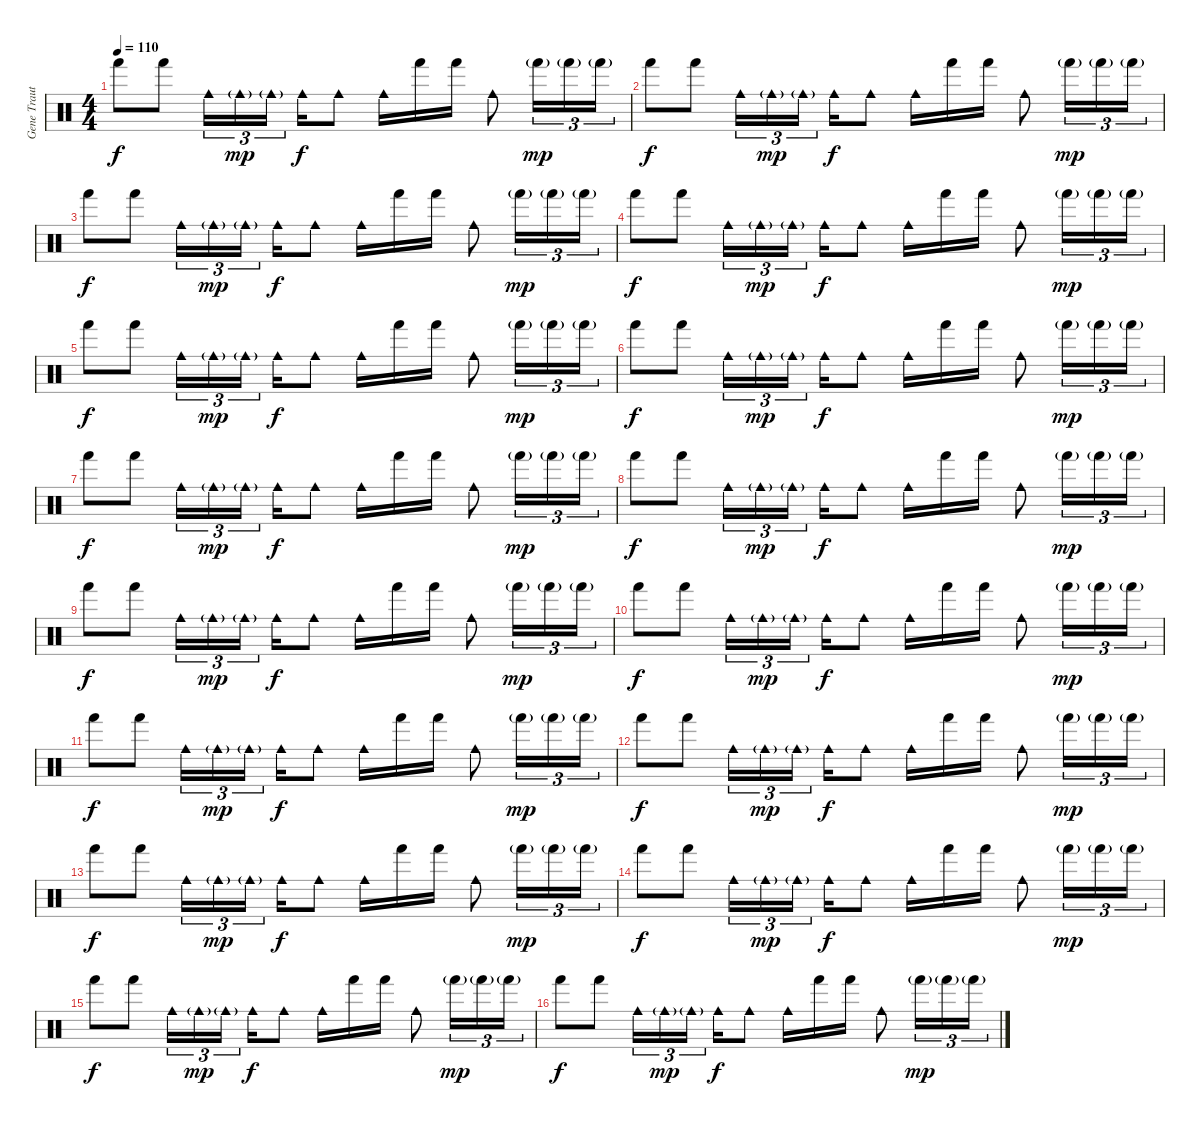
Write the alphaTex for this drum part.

\track ("Gene Trautmann (Drums)" "Gene Traut") {instrument percussion}
\staff {score}
\articulation defaults
\ts (4 4)
\tempo 110
\clef neutral
\ks c "Hand (hit)".8{dy f} "Hand (hit)".8 "Cowbell medium (hit)".16{tu (3 2)} "Cowbell medium (hit)"{g}.16{tu (3 2) dy mp} "Cowbell medium (hit)"{g}.16{tu (3 2)} "Cowbell medium (hit)".16{dy f} "Cowbell medium (hit)".8 "Cowbell medium (hit)".16 "Hand (hit)".16 "Hand (hit)".16 "Cowbell medium (hit)".8 "Hand (hit)"{g}.16{tu (3 2) dy mp} "Hand (hit)"{g}.16{tu (3 2)} "Hand (hit)"{g}.16{tu (3 2)}
|
"Hand (hit)".8{dy f} "Hand (hit)".8 "Cowbell medium (hit)".16{tu (3 2)} "Cowbell medium (hit)"{g}.16{tu (3 2) dy mp} "Cowbell medium (hit)"{g}.16{tu (3 2)} "Cowbell medium (hit)".16{dy f} "Cowbell medium (hit)".8 "Cowbell medium (hit)".16 "Hand (hit)".16 "Hand (hit)".16 "Cowbell medium (hit)".8 "Hand (hit)"{g}.16{tu (3 2) dy mp} "Hand (hit)"{g}.16{tu (3 2)} "Hand (hit)"{g}.16{tu (3 2)} |
"Hand (hit)".8{dy f} "Hand (hit)".8 "Cowbell medium (hit)".16{tu (3 2)} "Cowbell medium (hit)"{g}.16{tu (3 2) dy mp} "Cowbell medium (hit)"{g}.16{tu (3 2)} "Cowbell medium (hit)".16{dy f} "Cowbell medium (hit)".8 "Cowbell medium (hit)".16 "Hand (hit)".16 "Hand (hit)".16 "Cowbell medium (hit)".8 "Hand (hit)"{g}.16{tu (3 2) dy mp} "Hand (hit)"{g}.16{tu (3 2)} "Hand (hit)"{g}.16{tu (3 2)} |
"Hand (hit)".8{dy f} "Hand (hit)".8 "Cowbell medium (hit)".16{tu (3 2)} "Cowbell medium (hit)"{g}.16{tu (3 2) dy mp} "Cowbell medium (hit)"{g}.16{tu (3 2)} "Cowbell medium (hit)".16{dy f} "Cowbell medium (hit)".8 "Cowbell medium (hit)".16 "Hand (hit)".16 "Hand (hit)".16 "Cowbell medium (hit)".8 "Hand (hit)"{g}.16{tu (3 2) dy mp} "Hand (hit)"{g}.16{tu (3 2)} "Hand (hit)"{g}.16{tu (3 2)} |
"Hand (hit)".8{dy f} "Hand (hit)".8 "Cowbell medium (hit)".16{tu (3 2)} "Cowbell medium (hit)"{g}.16{tu (3 2) dy mp} "Cowbell medium (hit)"{g}.16{tu (3 2)} "Cowbell medium (hit)".16{dy f} "Cowbell medium (hit)".8 "Cowbell medium (hit)".16 "Hand (hit)".16 "Hand (hit)".16 "Cowbell medium (hit)".8 "Hand (hit)"{g}.16{tu (3 2) dy mp} "Hand (hit)"{g}.16{tu (3 2)} "Hand (hit)"{g}.16{tu (3 2)} |
"Hand (hit)".8{dy f} "Hand (hit)".8 "Cowbell medium (hit)".16{tu (3 2)} "Cowbell medium (hit)"{g}.16{tu (3 2) dy mp} "Cowbell medium (hit)"{g}.16{tu (3 2)} "Cowbell medium (hit)".16{dy f} "Cowbell medium (hit)".8 "Cowbell medium (hit)".16 "Hand (hit)".16 "Hand (hit)".16 "Cowbell medium (hit)".8 "Hand (hit)"{g}.16{tu (3 2) dy mp} "Hand (hit)"{g}.16{tu (3 2)} "Hand (hit)"{g}.16{tu (3 2)} |
"Hand (hit)".8{dy f} "Hand (hit)".8 "Cowbell medium (hit)".16{tu (3 2)} "Cowbell medium (hit)"{g}.16{tu (3 2) dy mp} "Cowbell medium (hit)"{g}.16{tu (3 2)} "Cowbell medium (hit)".16{dy f} "Cowbell medium (hit)".8 "Cowbell medium (hit)".16 "Hand (hit)".16 "Hand (hit)".16 "Cowbell medium (hit)".8 "Hand (hit)"{g}.16{tu (3 2) dy mp} "Hand (hit)"{g}.16{tu (3 2)} "Hand (hit)"{g}.16{tu (3 2)} |
"Hand (hit)".8{dy f} "Hand (hit)".8 "Cowbell medium (hit)".16{tu (3 2)} "Cowbell medium (hit)"{g}.16{tu (3 2) dy mp} "Cowbell medium (hit)"{g}.16{tu (3 2)} "Cowbell medium (hit)".16{dy f} "Cowbell medium (hit)".8 "Cowbell medium (hit)".16 "Hand (hit)".16 "Hand (hit)".16 "Cowbell medium (hit)".8 "Hand (hit)"{g}.16{tu (3 2) dy mp} "Hand (hit)"{g}.16{tu (3 2)} "Hand (hit)"{g}.16{tu (3 2)} |
"Hand (hit)".8{dy f} "Hand (hit)".8 "Cowbell medium (hit)".16{tu (3 2)} "Cowbell medium (hit)"{g}.16{tu (3 2) dy mp} "Cowbell medium (hit)"{g}.16{tu (3 2)} "Cowbell medium (hit)".16{dy f} "Cowbell medium (hit)".8 "Cowbell medium (hit)".16 "Hand (hit)".16 "Hand (hit)".16 "Cowbell medium (hit)".8 "Hand (hit)"{g}.16{tu (3 2) dy mp} "Hand (hit)"{g}.16{tu (3 2)} "Hand (hit)"{g}.16{tu (3 2)} |
"Hand (hit)".8{dy f} "Hand (hit)".8 "Cowbell medium (hit)".16{tu (3 2)} "Cowbell medium (hit)"{g}.16{tu (3 2) dy mp} "Cowbell medium (hit)"{g}.16{tu (3 2)} "Cowbell medium (hit)".16{dy f} "Cowbell medium (hit)".8 "Cowbell medium (hit)".16 "Hand (hit)".16 "Hand (hit)".16 "Cowbell medium (hit)".8 "Hand (hit)"{g}.16{tu (3 2) dy mp} "Hand (hit)"{g}.16{tu (3 2)} "Hand (hit)"{g}.16{tu (3 2)} |
"Hand (hit)".8{dy f} "Hand (hit)".8 "Cowbell medium (hit)".16{tu (3 2)} "Cowbell medium (hit)"{g}.16{tu (3 2) dy mp} "Cowbell medium (hit)"{g}.16{tu (3 2)} "Cowbell medium (hit)".16{dy f} "Cowbell medium (hit)".8 "Cowbell medium (hit)".16 "Hand (hit)".16 "Hand (hit)".16 "Cowbell medium (hit)".8 "Hand (hit)"{g}.16{tu (3 2) dy mp} "Hand (hit)"{g}.16{tu (3 2)} "Hand (hit)"{g}.16{tu (3 2)} |
"Hand (hit)".8{dy f} "Hand (hit)".8 "Cowbell medium (hit)".16{tu (3 2)} "Cowbell medium (hit)"{g}.16{tu (3 2) dy mp} "Cowbell medium (hit)"{g}.16{tu (3 2)} "Cowbell medium (hit)".16{dy f} "Cowbell medium (hit)".8 "Cowbell medium (hit)".16 "Hand (hit)".16 "Hand (hit)".16 "Cowbell medium (hit)".8 "Hand (hit)"{g}.16{tu (3 2) dy mp} "Hand (hit)"{g}.16{tu (3 2)} "Hand (hit)"{g}.16{tu (3 2)} |
"Hand (hit)".8{dy f} "Hand (hit)".8 "Cowbell medium (hit)".16{tu (3 2)} "Cowbell medium (hit)"{g}.16{tu (3 2) dy mp} "Cowbell medium (hit)"{g}.16{tu (3 2)} "Cowbell medium (hit)".16{dy f} "Cowbell medium (hit)".8 "Cowbell medium (hit)".16 "Hand (hit)".16 "Hand (hit)".16 "Cowbell medium (hit)".8 "Hand (hit)"{g}.16{tu (3 2) dy mp} "Hand (hit)"{g}.16{tu (3 2)} "Hand (hit)"{g}.16{tu (3 2)} |
"Hand (hit)".8{dy f} "Hand (hit)".8 "Cowbell medium (hit)".16{tu (3 2)} "Cowbell medium (hit)"{g}.16{tu (3 2) dy mp} "Cowbell medium (hit)"{g}.16{tu (3 2)} "Cowbell medium (hit)".16{dy f} "Cowbell medium (hit)".8 "Cowbell medium (hit)".16 "Hand (hit)".16 "Hand (hit)".16 "Cowbell medium (hit)".8 "Hand (hit)"{g}.16{tu (3 2) dy mp} "Hand (hit)"{g}.16{tu (3 2)} "Hand (hit)"{g}.16{tu (3 2)} |
"Hand (hit)".8{dy f} "Hand (hit)".8 "Cowbell medium (hit)".16{tu (3 2)} "Cowbell medium (hit)"{g}.16{tu (3 2) dy mp} "Cowbell medium (hit)"{g}.16{tu (3 2)} "Cowbell medium (hit)".16{dy f} "Cowbell medium (hit)".8 "Cowbell medium (hit)".16 "Hand (hit)".16 "Hand (hit)".16 "Cowbell medium (hit)".8 "Hand (hit)"{g}.16{tu (3 2) dy mp} "Hand (hit)"{g}.16{tu (3 2)} "Hand (hit)"{g}.16{tu (3 2)} |
"Hand (hit)".8{dy f} "Hand (hit)".8 "Cowbell medium (hit)".16{tu (3 2)} "Cowbell medium (hit)"{g}.16{tu (3 2) dy mp} "Cowbell medium (hit)"{g}.16{tu (3 2)} "Cowbell medium (hit)".16{dy f} "Cowbell medium (hit)".8 "Cowbell medium (hit)".16 "Hand (hit)".16 "Hand (hit)".16 "Cowbell medium (hit)".8 "Hand (hit)"{g}.16{tu (3 2) dy mp} "Hand (hit)"{g}.16{tu (3 2)} "Hand (hit)"{g}.16{tu (3 2)}
